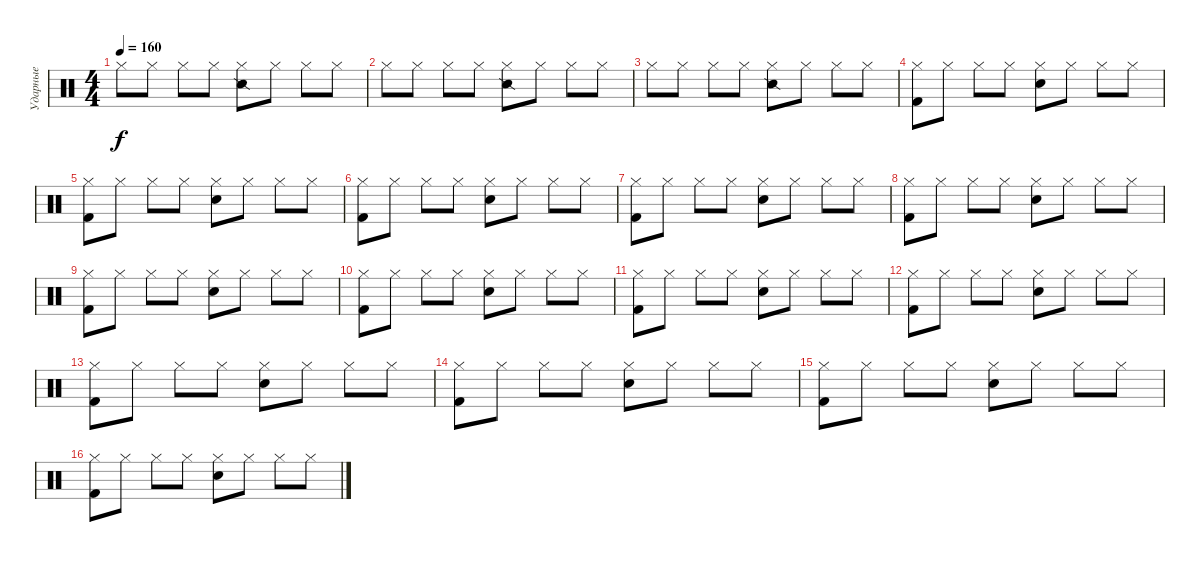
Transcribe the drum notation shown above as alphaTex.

\track ("Ударные" "Ударные") {instrument percussion}
\staff {score}
\articulation defaults
\ts (4 4)
\tempo 160
\clef neutral
\ks c "Hi-Hat (closed)".8{dy f} "Hi-Hat (closed)".8 "Hi-Hat (closed)".8 "Hi-Hat (closed)".8
("Snare (side stick) 2" "Hi-Hat (closed)").8 "Hi-Hat (closed)".8 "Hi-Hat (closed)".8 "Hi-Hat (closed)".8 |
"Hi-Hat (closed)".8 "Hi-Hat (closed)".8 "Hi-Hat (closed)".8 "Hi-Hat (closed)".8 ("Snare (side stick) 2" "Hi-Hat (closed)").8 "Hi-Hat (closed)".8 "Hi-Hat (closed)".8 "Hi-Hat (closed)".8 |
"Hi-Hat (closed)".8 "Hi-Hat (closed)".8 "Hi-Hat (closed)".8 "Hi-Hat (closed)".8 ("Snare (side stick) 2" "Hi-Hat (closed)").8 "Hi-Hat (closed)".8 "Hi-Hat (closed)".8 "Hi-Hat (closed)".8 |
("Kick (hit) 2" "Hi-Hat (closed)").8 "Hi-Hat (closed)".8 "Hi-Hat (closed)".8 "Hi-Hat (closed)".8 ("Snare (hit) 2" "Hi-Hat (closed)").8 "Hi-Hat (closed)".8 "Hi-Hat (closed)".8 "Hi-Hat (closed)".8 |
("Kick (hit) 2" "Hi-Hat (closed)").8 "Hi-Hat (closed)".8 "Hi-Hat (closed)".8 "Hi-Hat (closed)".8 ("Snare (hit) 2" "Hi-Hat (closed)").8 "Hi-Hat (closed)".8 "Hi-Hat (closed)".8 "Hi-Hat (closed)".8 |
("Kick (hit) 2" "Hi-Hat (closed)").8 "Hi-Hat (closed)".8 "Hi-Hat (closed)".8 "Hi-Hat (closed)".8 ("Snare (hit) 2" "Hi-Hat (closed)").8 "Hi-Hat (closed)".8 "Hi-Hat (closed)".8 "Hi-Hat (closed)".8 |
("Kick (hit) 2" "Hi-Hat (closed)").8 "Hi-Hat (closed)".8 "Hi-Hat (closed)".8 "Hi-Hat (closed)".8 ("Snare (hit) 2" "Hi-Hat (closed)").8 "Hi-Hat (closed)".8 "Hi-Hat (closed)".8 "Hi-Hat (closed)".8 |
("Kick (hit) 2" "Hi-Hat (closed)").8 "Hi-Hat (closed)".8 "Hi-Hat (closed)".8 "Hi-Hat (closed)".8 ("Snare (hit) 2" "Hi-Hat (closed)").8 "Hi-Hat (closed)".8 "Hi-Hat (closed)".8 "Hi-Hat (closed)".8 |
("Kick (hit) 2" "Hi-Hat (closed)").8 "Hi-Hat (closed)".8 "Hi-Hat (closed)".8 "Hi-Hat (closed)".8 ("Snare (hit) 2" "Hi-Hat (closed)").8 "Hi-Hat (closed)".8 "Hi-Hat (closed)".8 "Hi-Hat (closed)".8 |
("Kick (hit) 2" "Hi-Hat (closed)").8 "Hi-Hat (closed)".8 "Hi-Hat (closed)".8 "Hi-Hat (closed)".8 ("Snare (hit) 2" "Hi-Hat (closed)").8 "Hi-Hat (closed)".8 "Hi-Hat (closed)".8 "Hi-Hat (closed)".8 |
("Kick (hit) 2" "Hi-Hat (closed)").8 "Hi-Hat (closed)".8 "Hi-Hat (closed)".8 "Hi-Hat (closed)".8 ("Snare (hit) 2" "Hi-Hat (closed)").8 "Hi-Hat (closed)".8 "Hi-Hat (closed)".8 "Hi-Hat (closed)".8 |
("Kick (hit) 2" "Hi-Hat (closed)").8 "Hi-Hat (closed)".8 "Hi-Hat (closed)".8 "Hi-Hat (closed)".8 ("Snare (hit) 2" "Hi-Hat (closed)").8 "Hi-Hat (closed)".8 "Hi-Hat (closed)".8 "Hi-Hat (closed)".8 |
("Kick (hit) 2" "Hi-Hat (closed)").8 "Hi-Hat (closed)".8 "Hi-Hat (closed)".8 "Hi-Hat (closed)".8 ("Snare (hit) 2" "Hi-Hat (closed)").8 "Hi-Hat (closed)".8 "Hi-Hat (closed)".8 "Hi-Hat (closed)".8 |
("Kick (hit) 2" "Hi-Hat (closed)").8 "Hi-Hat (closed)".8 "Hi-Hat (closed)".8 "Hi-Hat (closed)".8 ("Snare (hit) 2" "Hi-Hat (closed)").8 "Hi-Hat (closed)".8 "Hi-Hat (closed)".8 "Hi-Hat (closed)".8 |
("Kick (hit) 2" "Hi-Hat (closed)").8 "Hi-Hat (closed)".8 "Hi-Hat (closed)".8 "Hi-Hat (closed)".8 ("Snare (hit) 2" "Hi-Hat (closed)").8 "Hi-Hat (closed)".8 "Hi-Hat (closed)".8 "Hi-Hat (closed)".8 |
("Kick (hit) 2" "Hi-Hat (closed)").8 "Hi-Hat (closed)".8 "Hi-Hat (closed)".8 "Hi-Hat (closed)".8 ("Snare (hit) 2" "Hi-Hat (closed)").8 "Hi-Hat (closed)".8 "Hi-Hat (closed)".8 "Hi-Hat (closed)".8
